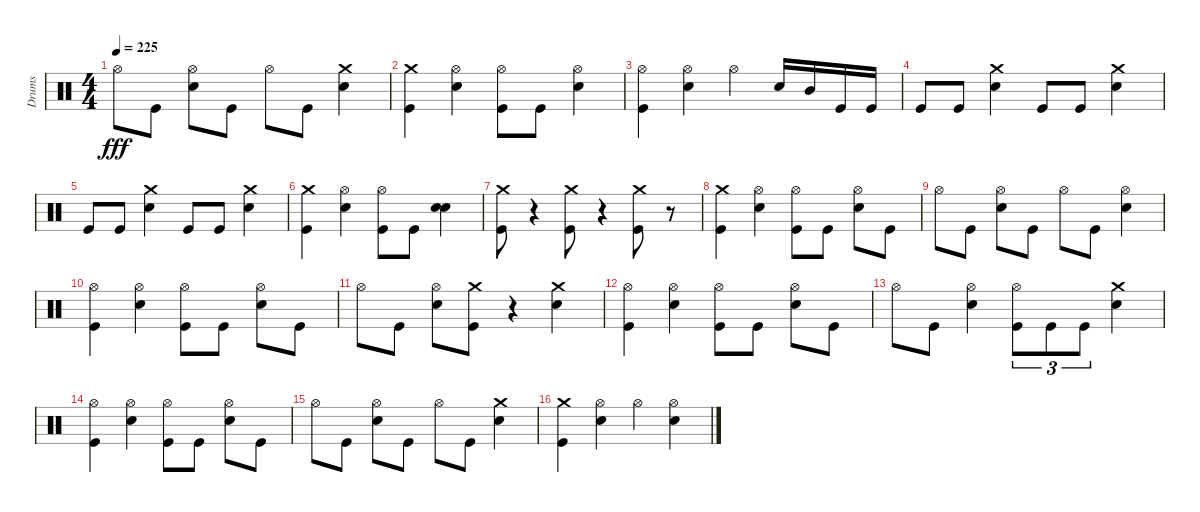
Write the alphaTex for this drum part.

\track ("Drums" "Drums") {instrument percussion}
\staff {score}
\articulation defaults
\ts (4 4)
\tempo 225
\clef neutral
\ks c "Hi-Hat (open)".8{dy fff} "Kick (hit)".8
("Snare (hit) 2" "Hi-Hat (open)").8 "Kick (hit)".8 "Hi-Hat (open)".8 "Kick (hit)".8 ("Crash medium (hit)" "Snare (hit) 2").4 |
("Kick (hit)" "Crash medium (hit)").4 ("Snare (hit) 2" "Hi-Hat (open)").4 ("Kick (hit)" "Hi-Hat (open)").8 "Kick (hit)".8 ("Snare (hit) 2" "Hi-Hat (open)").4 |
("Kick (hit)" "Hi-Hat (open)").4 ("Snare (hit) 2" "Hi-Hat (open)").4 "Hi-Hat (open)".4 "Snare (hit) 2".16 "Mid Tom (hit)".16 "Kick (hit)".16 "Kick (hit)".16 |
"Kick (hit)".8 "Kick (hit)".8 ("Snare (hit) 2" "Crash medium (hit)").4 "Kick (hit)".8 "Kick (hit)".8 ("Snare (hit) 2" "Crash medium (hit)").4 |
"Kick (hit)".8 "Kick (hit)".8 ("Crash medium (hit)" "Snare (hit) 2").4 "Kick (hit)".8 "Kick (hit)".8 ("Crash medium (hit)" "Snare (hit) 2").4 |
("Kick (hit)" "Crash medium (hit)").4 ("Snare (hit) 2" "Hi-Hat (open)").4 ("Kick (hit)" "Hi-Hat (open)").8 "Kick (hit)".8 ("Snare (hit) 2" "Snare (hit) 2").4 |
("Crash medium (hit)" "Kick (hit)").8 r.4 ("Kick (hit)" "Crash medium (hit)").8 r.4 ("Crash medium (hit)" "Kick (hit)").8 r.8 |
("Kick (hit)" "Crash medium (hit)").4 ("Snare (hit) 2" "Hi-Hat (open)").4 ("Kick (hit)" "Hi-Hat (open)").8 "Kick (hit)".8 ("Snare (hit) 2" "Hi-Hat (open)").8 "Kick (hit)".8 |
"Hi-Hat (open)".8 "Kick (hit)".8 ("Snare (hit) 2" "Hi-Hat (open)").8 "Kick (hit)".8 "Hi-Hat (open)".8 "Kick (hit)".8 ("Snare (hit) 2" "Hi-Hat (open)").4 |
("Kick (hit)" "Hi-Hat (open)").4 ("Snare (hit) 2" "Hi-Hat (open)").4 ("Kick (hit)" "Hi-Hat (open)").8 "Kick (hit)".8 ("Snare (hit) 2" "Hi-Hat (open)").8 "Kick (hit)".8 |
"Hi-Hat (open)".8 "Kick (hit)".8 ("Snare (hit) 2" "Hi-Hat (open)").8 ("Crash medium (hit)" "Kick (hit)").8 r.4 ("Snare (hit) 2" "Crash medium (hit)").4 |
("Kick (hit)" "Hi-Hat (open)").4 ("Snare (hit) 2" "Hi-Hat (open)").4 ("Kick (hit)" "Hi-Hat (open)").8 "Kick (hit)".8 ("Snare (hit) 2" "Hi-Hat (open)").8 "Kick (hit)".8 |
"Hi-Hat (open)".8 "Kick (hit)".8 ("Snare (hit) 2" "Hi-Hat (open)").4 ("Kick (hit)" "Hi-Hat (open)").8{tu (3 2)} "Kick (hit)".8{tu (3 2)} "Kick (hit)".8{tu (3 2)} ("Crash medium (hit)" "Snare (hit) 2").4 |
("Kick (hit)" "Hi-Hat (open)").4 ("Snare (hit) 2" "Hi-Hat (open)").4 ("Kick (hit)" "Hi-Hat (open)").8 "Kick (hit)".8 ("Snare (hit) 2" "Hi-Hat (open)").8 "Kick (hit)".8 |
"Hi-Hat (open)".8 "Kick (hit)".8 ("Snare (hit) 2" "Hi-Hat (open)").8 "Kick (hit)".8 "Hi-Hat (open)".8 "Kick (hit)".8 ("Snare (hit) 2" "Crash medium (hit)").4 |
("Kick (hit)" "Crash medium (hit)").4 ("Snare (hit) 2" "Hi-Hat (open)").4 "Hi-Hat (open)".4 ("Snare (hit) 2" "Hi-Hat (open)").4
